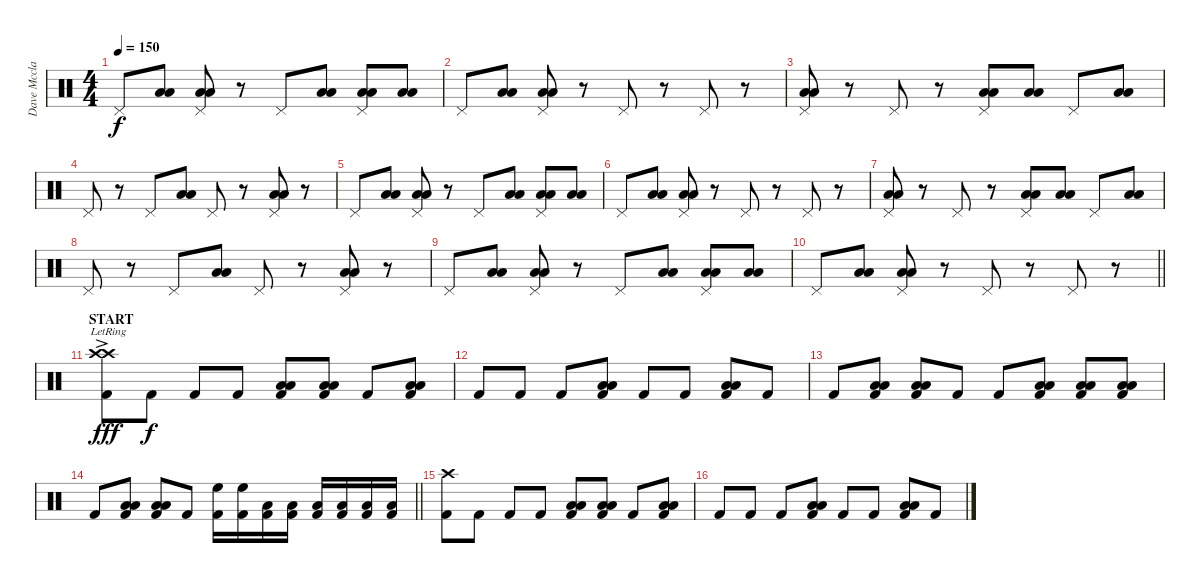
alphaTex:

\track ("Dave Mcclain" "Dave Mccla") {instrument percussion}
\staff {score}
\articulation defaults
\ts (4 4)
\tempo 150
\clef neutral
\ks c "Pedal Hi-Hat (hit)".8{dy f}
("Low Tom (hit)" "Low Floor Tom (hit)").8 ("Low Tom (hit)" "Low Floor Tom (hit)" "Pedal Hi-Hat (hit)").8 r.8 "Pedal Hi-Hat (hit)".8 ("Low Tom (hit)" "Low Floor Tom (hit)").8 ("Low Tom (hit)" "Low Floor Tom (hit)" "Pedal Hi-Hat (hit)").8 ("Low Tom (hit)" "Low Floor Tom (hit)").8 |
"Pedal Hi-Hat (hit)".8 ("Low Tom (hit)" "Low Floor Tom (hit)").8 ("Low Tom (hit)" "Low Floor Tom (hit)" "Pedal Hi-Hat (hit)").8 r.8 "Pedal Hi-Hat (hit)".8 r.8 "Pedal Hi-Hat (hit)".8 r.8 |
("Low Tom (hit)" "Low Floor Tom (hit)" "Pedal Hi-Hat (hit)").8 r.8 "Pedal Hi-Hat (hit)".8 r.8 ("Low Tom (hit)" "Low Floor Tom (hit)" "Pedal Hi-Hat (hit)").8 ("Low Tom (hit)" "Low Floor Tom (hit)").8 "Pedal Hi-Hat (hit)".8 ("Low Tom (hit)" "Low Floor Tom (hit)").8 |
"Pedal Hi-Hat (hit)".8 r.8 "Pedal Hi-Hat (hit)".8 ("Low Tom (hit)" "Low Floor Tom (hit)").8 "Pedal Hi-Hat (hit)".8 r.8 ("Low Tom (hit)" "Low Floor Tom (hit)" "Pedal Hi-Hat (hit)").8 r.8 |
"Pedal Hi-Hat (hit)".8 ("Low Tom (hit)" "Low Floor Tom (hit)").8 ("Low Tom (hit)" "Low Floor Tom (hit)" "Pedal Hi-Hat (hit)").8 r.8 "Pedal Hi-Hat (hit)".8 ("Low Tom (hit)" "Low Floor Tom (hit)").8 ("Low Tom (hit)" "Low Floor Tom (hit)" "Pedal Hi-Hat (hit)").8 ("Low Tom (hit)" "Low Floor Tom (hit)").8 |
"Pedal Hi-Hat (hit)".8 ("Low Tom (hit)" "Low Floor Tom (hit)").8 ("Low Tom (hit)" "Low Floor Tom (hit)" "Pedal Hi-Hat (hit)").8 r.8 "Pedal Hi-Hat (hit)".8 r.8 "Pedal Hi-Hat (hit)".8 r.8 |
("Low Tom (hit)" "Low Floor Tom (hit)" "Pedal Hi-Hat (hit)").8 r.8 "Pedal Hi-Hat (hit)".8 r.8 ("Low Tom (hit)" "Low Floor Tom (hit)" "Pedal Hi-Hat (hit)").8 ("Low Tom (hit)" "Low Floor Tom (hit)").8 "Pedal Hi-Hat (hit)".8 ("Low Tom (hit)" "Low Floor Tom (hit)").8 |
"Pedal Hi-Hat (hit)".8 r.8 "Pedal Hi-Hat (hit)".8 ("Low Tom (hit)" "Low Floor Tom (hit)").8 "Pedal Hi-Hat (hit)".8 r.8 ("Low Tom (hit)" "Low Floor Tom (hit)" "Pedal Hi-Hat (hit)").8 r.8 |
"Pedal Hi-Hat (hit)".8 ("Low Tom (hit)" "Low Floor Tom (hit)").8 ("Low Tom (hit)" "Low Floor Tom (hit)" "Pedal Hi-Hat (hit)").8 r.8 "Pedal Hi-Hat (hit)".8 ("Low Tom (hit)" "Low Floor Tom (hit)").8 ("Low Tom (hit)" "Low Floor Tom (hit)" "Pedal Hi-Hat (hit)").8 ("Low Tom (hit)" "Low Floor Tom (hit)").8 |
\barLineRight lightlight "Pedal Hi-Hat (hit)".8
("Low Tom (hit)" "Low Floor Tom (hit)").8 ("Low Tom (hit)" "Low Floor Tom (hit)" "Pedal Hi-Hat (hit)").8 r.8 "Pedal Hi-Hat (hit)".8 r.8 "Pedal Hi-Hat (hit)".8 r.8 |
\section ("" "START")
("Crash high (hit)"{ac lr} "Crash high (hit)"{ac lr} "Kick (hit) 2").8{dy fff} "Kick (hit) 2".8{dy f} "Kick (hit) 2".8 "Kick (hit) 2".8 ("Low Tom (hit)" "Low Floor Tom (hit)" "Kick (hit) 2").8 ("Low Tom (hit)" "Low Floor Tom (hit)" "Kick (hit) 2").8 "Kick (hit) 2".8 ("Low Tom (hit)" "Low Floor Tom (hit)" "Kick (hit) 2").8 |
"Kick (hit) 2".8 "Kick (hit) 2".8 "Kick (hit) 2".8 ("Low Tom (hit)" "Low Floor Tom (hit)" "Kick (hit) 2").8 "Kick (hit) 2".8 "Kick (hit) 2".8 ("Low Tom (hit)" "Low Floor Tom (hit)" "Kick (hit) 2").8 "Kick (hit) 2".8 |
"Kick (hit) 2".8 ("Low Tom (hit)" "Low Floor Tom (hit)" "Kick (hit) 2").8 ("Low Tom (hit)" "Low Floor Tom (hit)" "Kick (hit) 2").8 "Kick (hit) 2".8 "Kick (hit) 2".8 ("Low Tom (hit)" "Low Floor Tom (hit)" "Kick (hit) 2").8 ("Low Tom (hit)" "Low Floor Tom (hit)" "Kick (hit) 2").8 ("Low Tom (hit)" "Low Floor Tom (hit)" "Kick (hit) 2").8 |
\barLineRight lightlight "Kick (hit) 2".8
("Low Tom (hit)" "Low Floor Tom (hit)" "Kick (hit) 2").8 ("Low Tom (hit)" "Low Floor Tom (hit)" "Kick (hit) 2").8 "Kick (hit) 2".8 ("High Floor Tom (hit)" "Kick (hit) 2").16 ("High Floor Tom (hit)" "Kick (hit) 2").16 ("Low Tom (hit)" "Kick (hit) 2").16 ("Low Tom (hit)" "Kick (hit) 2").16 ("Low Floor Tom (hit)" "Kick (hit) 2").16 ("Low Floor Tom (hit)" "Kick (hit) 2").16 ("Low Floor Tom (hit)" "Kick (hit) 2").16 ("Low Floor Tom (hit)" "Kick (hit) 2").16 |
\section ("" "")
("Crash high (hit)" "Kick (hit) 2").8 "Kick (hit) 2".8 "Kick (hit) 2".8 "Kick (hit) 2".8 ("Low Tom (hit)" "Low Floor Tom (hit)" "Kick (hit) 2").8 ("Low Tom (hit)" "Low Floor Tom (hit)" "Kick (hit) 2").8 "Kick (hit) 2".8 ("Low Tom (hit)" "Low Floor Tom (hit)" "Kick (hit) 2").8 |
"Kick (hit) 2".8 "Kick (hit) 2".8 "Kick (hit) 2".8 ("Low Tom (hit)" "Low Floor Tom (hit)" "Kick (hit) 2").8 "Kick (hit) 2".8 "Kick (hit) 2".8 ("Low Tom (hit)" "Low Floor Tom (hit)" "Kick (hit) 2").8 "Kick (hit) 2".8
